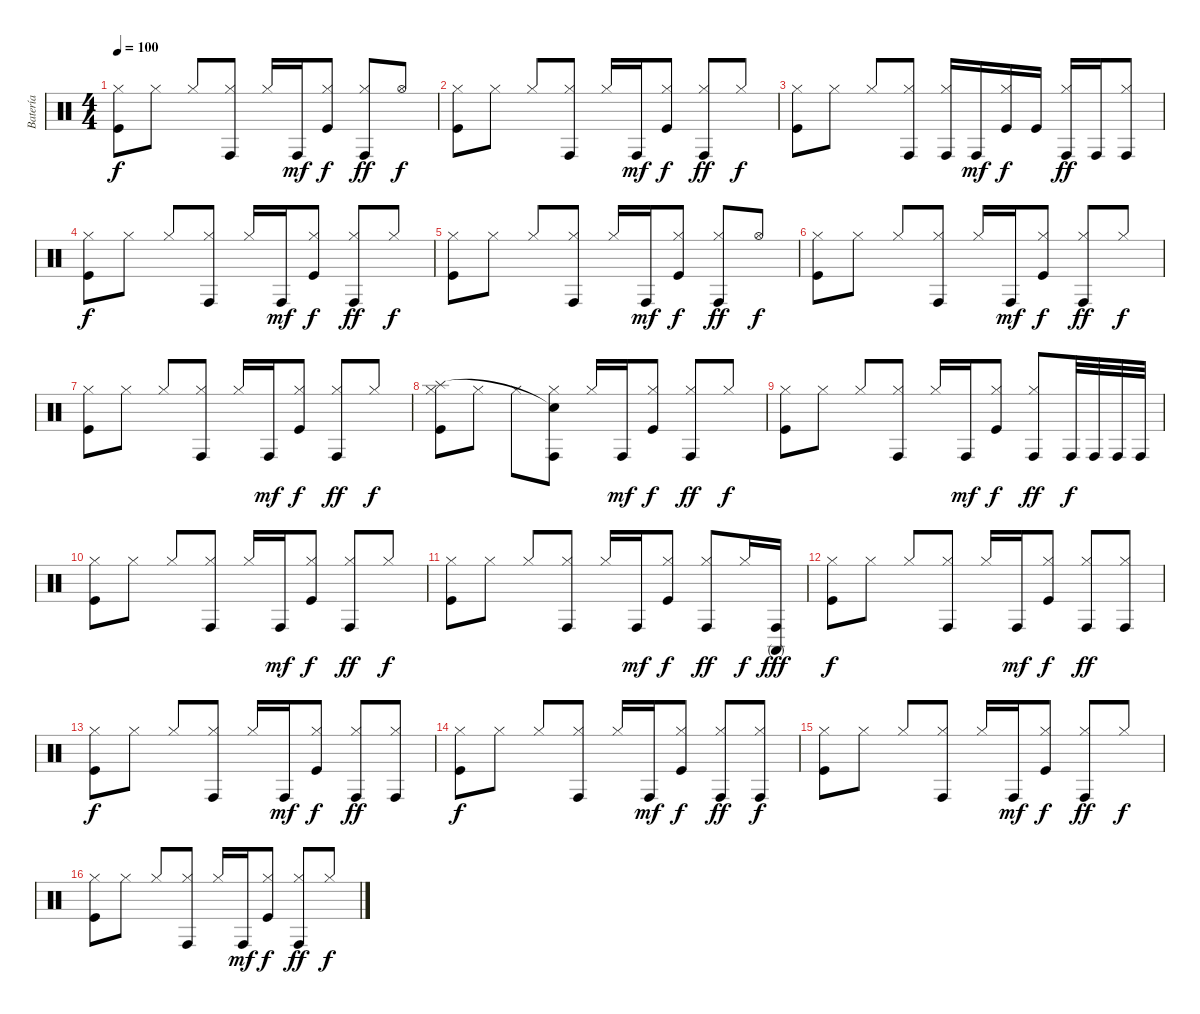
\track ("Batería" "Batería") {instrument percussion}
\staff {score}
\articulation defaults
\ts (4 4)
\tempo 100
\clef neutral
\ks c
("Hi-Hat (closed)" "Kick (hit)").8{dy f} "Hi-Hat (closed)".8 "Hi-Hat (closed)".8 ("Hi-Hat (closed)" "Conga high (hit)").8 "Hi-Hat (closed)".16 "Conga high (hit)".16{dy mf} ("Hi-Hat (closed)" "Kick (hit)").8{dy f} ("Hi-Hat (closed)" "Conga high (hit)").8{dy ff} "Hi-Hat (open)".8{dy f} |
("Hi-Hat (closed)" "Kick (hit)").8 "Hi-Hat (closed)".8 "Hi-Hat (closed)".8 ("Hi-Hat (closed)" "Conga high (hit)").8 "Hi-Hat (closed)".16 "Conga high (hit)".16{dy mf} ("Hi-Hat (closed)" "Kick (hit)").8{dy f} ("Hi-Hat (closed)" "Conga high (hit)").8{dy ff} "Hi-Hat (closed)".8{dy f} |
("Hi-Hat (closed)" "Kick (hit)").8 "Hi-Hat (closed)".8 "Hi-Hat (closed)".8 ("Hi-Hat (closed)" "Conga high (hit)").8 ("Hi-Hat (closed)" "Conga high (hit)").16 "Conga high (hit)".16{dy mf} ("Hi-Hat (closed)" "Kick (hit)").16{dy f} "Kick (hit)".16 ("Hi-Hat (closed)" "Conga high (hit)").16{dy ff} "Conga high (hit)".16 ("Hi-Hat (closed)" "Conga high (hit)").8 |
("Hi-Hat (closed)" "Kick (hit)").8{dy f} "Hi-Hat (closed)".8 "Hi-Hat (closed)".8 ("Hi-Hat (closed)" "Conga high (hit)").8 "Hi-Hat (closed)".16 "Conga high (hit)".16{dy mf} ("Hi-Hat (closed)" "Kick (hit)").8{dy f} ("Hi-Hat (closed)" "Conga high (hit)").8{dy ff} "Hi-Hat (closed)".8{dy f} |
("Hi-Hat (closed)" "Kick (hit)").8 "Hi-Hat (closed)".8 "Hi-Hat (closed)".8 ("Hi-Hat (closed)" "Conga high (hit)").8 "Hi-Hat (closed)".16 "Conga high (hit)".16{dy mf} ("Hi-Hat (closed)" "Kick (hit)").8{dy f} ("Hi-Hat (closed)" "Conga high (hit)").8{dy ff} "Hi-Hat (open)".8{dy f} |
("Hi-Hat (closed)" "Kick (hit)").8 "Hi-Hat (closed)".8 "Hi-Hat (closed)".8 ("Hi-Hat (closed)" "Conga high (hit)").8 "Hi-Hat (closed)".16 "Conga high (hit)".16{dy mf} ("Hi-Hat (closed)" "Kick (hit)").8{dy f} ("Hi-Hat (closed)" "Conga high (hit)").8{dy ff} "Hi-Hat (closed)".8{dy f} |
("Hi-Hat (closed)" "Kick (hit)").8 "Hi-Hat (closed)".8 "Hi-Hat (closed)".8 ("Hi-Hat (closed)" "Conga high (hit)").8 "Hi-Hat (closed)".16 "Conga high (hit)".16{dy mf} ("Hi-Hat (closed)" "Kick (hit)").8{dy f} ("Hi-Hat (closed)" "Conga high (hit)").8{dy ff} "Hi-Hat (closed)".8{dy f} |
("Hi-Hat (closed)" "Kick (hit)" "Splash (hit)").8 "Hi-Hat (closed)".8 "Hi-Hat (closed)".8 ("Hi-Hat (closed)" "Conga high (hit)" "Snare (hit)"{t}).8 "Hi-Hat (closed)".16 "Conga high (hit)".16{dy mf} ("Hi-Hat (closed)" "Kick (hit)").8{dy f} ("Hi-Hat (closed)" "Conga high (hit)").8{dy ff} "Hi-Hat (closed)".8{dy f} |
("Hi-Hat (closed)" "Kick (hit)").8 "Hi-Hat (closed)".8 "Hi-Hat (closed)".8 ("Hi-Hat (closed)" "Conga high (hit)").8 "Hi-Hat (closed)".16 "Conga high (hit)".16{dy mf} ("Hi-Hat (closed)" "Kick (hit)").8{dy f} ("Hi-Hat (closed)" "Conga high (hit)").8{dy ff} "Conga high (hit)".32{dy f} "Conga high (hit)".32 "Conga high (hit)".32 "Conga high (hit)".32 |
("Hi-Hat (closed)" "Kick (hit)").8 "Hi-Hat (closed)".8 "Hi-Hat (closed)".8 ("Hi-Hat (closed)" "Conga high (hit)").8 "Hi-Hat (closed)".16 "Conga high (hit)".16{dy mf} ("Hi-Hat (closed)" "Kick (hit)").8{dy f} ("Hi-Hat (closed)" "Conga high (hit)").8{dy ff} "Hi-Hat (closed)".8{dy f} |
("Hi-Hat (closed)" "Kick (hit)").8 "Hi-Hat (closed)".8 "Hi-Hat (closed)".8 ("Hi-Hat (closed)" "Conga high (hit)").8 "Hi-Hat (closed)".16 "Conga high (hit)".16{dy mf} ("Hi-Hat (closed)" "Kick (hit)").8{dy f} ("Hi-Hat (closed)" "Conga high (hit)").8{dy ff} "Hi-Hat (closed)".16{dy f} ("Conga high (mute)" "Conga high (hit)").16{dy fff} |
("Hi-Hat (closed)" "Kick (hit)").8{dy f} "Hi-Hat (closed)".8 "Hi-Hat (closed)".8 ("Hi-Hat (closed)" "Conga high (hit)").8 "Hi-Hat (closed)".16 "Conga high (hit)".16{dy mf} ("Hi-Hat (closed)" "Kick (hit)").8{dy f} ("Hi-Hat (closed)" "Conga high (hit)").8{dy ff} ("Hi-Hat (closed)" "Conga high (hit)").8 |
("Hi-Hat (closed)" "Kick (hit)").8{dy f} "Hi-Hat (closed)".8 "Hi-Hat (closed)".8 ("Hi-Hat (closed)" "Conga high (hit)").8 "Hi-Hat (closed)".16 "Conga high (hit)".16{dy mf} ("Hi-Hat (closed)" "Kick (hit)").8{dy f} ("Hi-Hat (closed)" "Conga high (hit)").8{dy ff} ("Hi-Hat (closed)" "Conga high (hit)").8 |
("Hi-Hat (closed)" "Kick (hit)").8{dy f} "Hi-Hat (closed)".8 "Hi-Hat (closed)".8 ("Hi-Hat (closed)" "Conga high (hit)").8 "Hi-Hat (closed)".16 "Conga high (hit)".16{dy mf} ("Hi-Hat (closed)" "Kick (hit)").8{dy f} ("Hi-Hat (closed)" "Conga high (hit)").8{dy ff} ("Hi-Hat (closed)" "Conga high (hit)").8{dy f} |
("Hi-Hat (closed)" "Kick (hit)").8 "Hi-Hat (closed)".8 "Hi-Hat (closed)".8 ("Hi-Hat (closed)" "Conga high (hit)").8 "Hi-Hat (closed)".16 "Conga high (hit)".16{dy mf} ("Hi-Hat (closed)" "Kick (hit)").8{dy f} ("Hi-Hat (closed)" "Conga high (hit)").8{dy ff} "Hi-Hat (closed)".8{dy f} |
("Hi-Hat (closed)" "Kick (hit)").8 "Hi-Hat (closed)".8 "Hi-Hat (closed)".8 ("Hi-Hat (closed)" "Conga high (hit)").8 "Hi-Hat (closed)".16 "Conga high (hit)".16{dy mf} ("Hi-Hat (closed)" "Kick (hit)").8{dy f} ("Hi-Hat (closed)" "Conga high (hit)").8{dy ff} "Hi-Hat (closed)".8{dy f}
